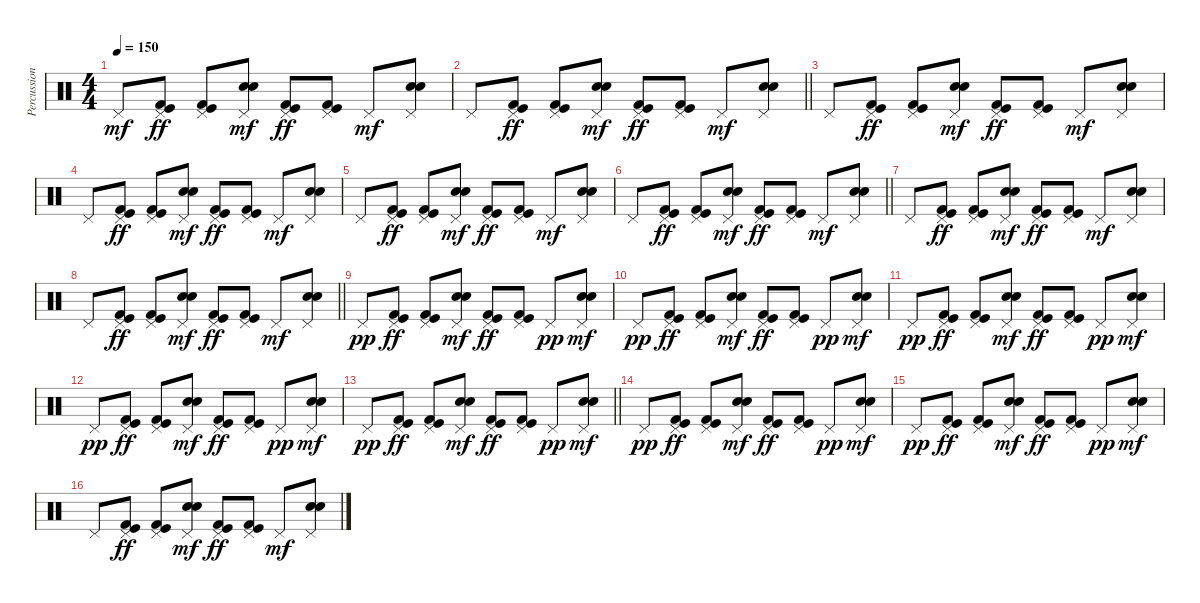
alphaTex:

\track ("Percussions" "Percussion") {instrument percussion}
\staff {score}
\articulation defaults
\ts (4 4)
\tempo 150
\clef neutral
\ks c "Pedal Hi-Hat (hit)".8{dy mf}
("Pedal Hi-Hat (hit)" "Kick (hit)" "Kick (hit) 2").8{dy ff} ("Pedal Hi-Hat (hit)" "Kick (hit)" "Kick (hit) 2").8 ("Pedal Hi-Hat (hit)" "Electric Snare (hit)" "Snare (hit) 2").8{dy mf} ("Pedal Hi-Hat (hit)" "Kick (hit)" "Kick (hit) 2").8{dy ff} ("Pedal Hi-Hat (hit)" "Kick (hit)" "Kick (hit) 2").8 "Pedal Hi-Hat (hit)".8{dy mf} ("Pedal Hi-Hat (hit)" "Electric Snare (hit)" "Snare (hit) 2").8 |
\barLineRight lightlight "Pedal Hi-Hat (hit)".8
("Pedal Hi-Hat (hit)" "Kick (hit)" "Kick (hit) 2").8{dy ff} ("Pedal Hi-Hat (hit)" "Kick (hit)" "Kick (hit) 2").8 ("Pedal Hi-Hat (hit)" "Electric Snare (hit)" "Snare (hit) 2").8{dy mf} ("Pedal Hi-Hat (hit)" "Kick (hit)" "Kick (hit) 2").8{dy ff} ("Pedal Hi-Hat (hit)" "Kick (hit)" "Kick (hit) 2").8 "Pedal Hi-Hat (hit)".8{dy mf} ("Pedal Hi-Hat (hit)" "Electric Snare (hit)" "Snare (hit) 2").8 |
"Pedal Hi-Hat (hit)".8 ("Pedal Hi-Hat (hit)" "Kick (hit)" "Kick (hit) 2").8{dy ff} ("Pedal Hi-Hat (hit)" "Kick (hit)" "Kick (hit) 2").8 ("Pedal Hi-Hat (hit)" "Electric Snare (hit)" "Snare (hit) 2").8{dy mf} ("Pedal Hi-Hat (hit)" "Kick (hit)" "Kick (hit) 2").8{dy ff} ("Pedal Hi-Hat (hit)" "Kick (hit)" "Kick (hit) 2").8 "Pedal Hi-Hat (hit)".8{dy mf} ("Pedal Hi-Hat (hit)" "Electric Snare (hit)" "Snare (hit) 2").8 |
"Pedal Hi-Hat (hit)".8 ("Pedal Hi-Hat (hit)" "Kick (hit)" "Kick (hit) 2").8{dy ff} ("Pedal Hi-Hat (hit)" "Kick (hit)" "Kick (hit) 2").8 ("Pedal Hi-Hat (hit)" "Electric Snare (hit)" "Snare (hit) 2").8{dy mf} ("Pedal Hi-Hat (hit)" "Kick (hit)" "Kick (hit) 2").8{dy ff} ("Pedal Hi-Hat (hit)" "Kick (hit)" "Kick (hit) 2").8 "Pedal Hi-Hat (hit)".8{dy mf} ("Pedal Hi-Hat (hit)" "Electric Snare (hit)" "Snare (hit) 2").8 |
"Pedal Hi-Hat (hit)".8 ("Pedal Hi-Hat (hit)" "Kick (hit)" "Kick (hit) 2").8{dy ff} ("Pedal Hi-Hat (hit)" "Kick (hit)" "Kick (hit) 2").8 ("Pedal Hi-Hat (hit)" "Electric Snare (hit)" "Snare (hit) 2").8{dy mf} ("Pedal Hi-Hat (hit)" "Kick (hit)" "Kick (hit) 2").8{dy ff} ("Pedal Hi-Hat (hit)" "Kick (hit)" "Kick (hit) 2").8 "Pedal Hi-Hat (hit)".8{dy mf} ("Pedal Hi-Hat (hit)" "Electric Snare (hit)" "Snare (hit) 2").8 |
\barLineRight lightlight "Pedal Hi-Hat (hit)".8
("Pedal Hi-Hat (hit)" "Kick (hit)" "Kick (hit) 2").8{dy ff} ("Pedal Hi-Hat (hit)" "Kick (hit)" "Kick (hit) 2").8 ("Pedal Hi-Hat (hit)" "Electric Snare (hit)" "Snare (hit) 2").8{dy mf} ("Pedal Hi-Hat (hit)" "Kick (hit)" "Kick (hit) 2").8{dy ff} ("Pedal Hi-Hat (hit)" "Kick (hit)" "Kick (hit) 2").8 "Pedal Hi-Hat (hit)".8{dy mf} ("Pedal Hi-Hat (hit)" "Electric Snare (hit)" "Snare (hit) 2").8 |
"Pedal Hi-Hat (hit)".8 ("Pedal Hi-Hat (hit)" "Kick (hit)" "Kick (hit) 2").8{dy ff} ("Pedal Hi-Hat (hit)" "Kick (hit)" "Kick (hit) 2").8 ("Pedal Hi-Hat (hit)" "Electric Snare (hit)" "Snare (hit) 2").8{dy mf} ("Pedal Hi-Hat (hit)" "Kick (hit)" "Kick (hit) 2").8{dy ff} ("Pedal Hi-Hat (hit)" "Kick (hit)" "Kick (hit) 2").8 "Pedal Hi-Hat (hit)".8{dy mf} ("Pedal Hi-Hat (hit)" "Electric Snare (hit)" "Snare (hit) 2").8 |
\barLineRight lightlight "Pedal Hi-Hat (hit)".8
("Pedal Hi-Hat (hit)" "Kick (hit)" "Kick (hit) 2").8{dy ff} ("Pedal Hi-Hat (hit)" "Kick (hit)" "Kick (hit) 2").8 ("Pedal Hi-Hat (hit)" "Electric Snare (hit)" "Snare (hit) 2").8{dy mf} ("Pedal Hi-Hat (hit)" "Kick (hit)" "Kick (hit) 2").8{dy ff} ("Pedal Hi-Hat (hit)" "Kick (hit)" "Kick (hit) 2").8 "Pedal Hi-Hat (hit)".8{dy mf} ("Pedal Hi-Hat (hit)" "Electric Snare (hit)" "Snare (hit) 2").8 |
"Pedal Hi-Hat (hit)".8{dy pp} ("Pedal Hi-Hat (hit)" "Kick (hit)" "Kick (hit) 2").8{dy ff} ("Pedal Hi-Hat (hit)" "Kick (hit)" "Kick (hit) 2").8 ("Pedal Hi-Hat (hit)" "Electric Snare (hit)" "Snare (hit) 2").8{dy mf} ("Pedal Hi-Hat (hit)" "Kick (hit)" "Kick (hit) 2").8{dy ff} ("Pedal Hi-Hat (hit)" "Kick (hit)" "Kick (hit) 2").8 "Pedal Hi-Hat (hit)".8{dy pp} ("Pedal Hi-Hat (hit)" "Electric Snare (hit)" "Snare (hit) 2").8{dy mf} |
"Pedal Hi-Hat (hit)".8{dy pp} ("Pedal Hi-Hat (hit)" "Kick (hit)" "Kick (hit) 2").8{dy ff} ("Pedal Hi-Hat (hit)" "Kick (hit)" "Kick (hit) 2").8 ("Pedal Hi-Hat (hit)" "Electric Snare (hit)" "Snare (hit) 2").8{dy mf} ("Pedal Hi-Hat (hit)" "Kick (hit)" "Kick (hit) 2").8{dy ff} ("Pedal Hi-Hat (hit)" "Kick (hit)" "Kick (hit) 2").8 "Pedal Hi-Hat (hit)".8{dy pp} ("Pedal Hi-Hat (hit)" "Electric Snare (hit)" "Snare (hit) 2").8{dy mf} |
"Pedal Hi-Hat (hit)".8{dy pp} ("Pedal Hi-Hat (hit)" "Kick (hit)" "Kick (hit) 2").8{dy ff} ("Pedal Hi-Hat (hit)" "Kick (hit)" "Kick (hit) 2").8 ("Pedal Hi-Hat (hit)" "Electric Snare (hit)" "Snare (hit) 2").8{dy mf} ("Pedal Hi-Hat (hit)" "Kick (hit)" "Kick (hit) 2").8{dy ff} ("Pedal Hi-Hat (hit)" "Kick (hit)" "Kick (hit) 2").8 "Pedal Hi-Hat (hit)".8{dy pp} ("Pedal Hi-Hat (hit)" "Electric Snare (hit)" "Snare (hit) 2").8{dy mf} |
"Pedal Hi-Hat (hit)".8{dy pp} ("Pedal Hi-Hat (hit)" "Kick (hit)" "Kick (hit) 2").8{dy ff} ("Pedal Hi-Hat (hit)" "Kick (hit)" "Kick (hit) 2").8 ("Pedal Hi-Hat (hit)" "Electric Snare (hit)" "Snare (hit) 2").8{dy mf} ("Pedal Hi-Hat (hit)" "Kick (hit)" "Kick (hit) 2").8{dy ff} ("Pedal Hi-Hat (hit)" "Kick (hit)" "Kick (hit) 2").8 "Pedal Hi-Hat (hit)".8{dy pp} ("Pedal Hi-Hat (hit)" "Electric Snare (hit)" "Snare (hit) 2").8{dy mf} |
\barLineRight lightlight "Pedal Hi-Hat (hit)".8{dy pp}
("Pedal Hi-Hat (hit)" "Kick (hit)" "Kick (hit) 2").8{dy ff} ("Pedal Hi-Hat (hit)" "Kick (hit)" "Kick (hit) 2").8 ("Pedal Hi-Hat (hit)" "Electric Snare (hit)" "Snare (hit) 2").8{dy mf} ("Pedal Hi-Hat (hit)" "Kick (hit)" "Kick (hit) 2").8{dy ff} ("Pedal Hi-Hat (hit)" "Kick (hit)" "Kick (hit) 2").8 "Pedal Hi-Hat (hit)".8{dy pp} ("Pedal Hi-Hat (hit)" "Electric Snare (hit)" "Snare (hit) 2").8{dy mf} |
"Pedal Hi-Hat (hit)".8{dy pp} ("Pedal Hi-Hat (hit)" "Kick (hit)" "Kick (hit) 2").8{dy ff} ("Pedal Hi-Hat (hit)" "Kick (hit)" "Kick (hit) 2").8 ("Pedal Hi-Hat (hit)" "Electric Snare (hit)" "Snare (hit) 2").8{dy mf} ("Pedal Hi-Hat (hit)" "Kick (hit)" "Kick (hit) 2").8{dy ff} ("Pedal Hi-Hat (hit)" "Kick (hit)" "Kick (hit) 2").8 "Pedal Hi-Hat (hit)".8{dy pp} ("Pedal Hi-Hat (hit)" "Electric Snare (hit)" "Snare (hit) 2").8{dy mf} |
"Pedal Hi-Hat (hit)".8{dy pp} ("Pedal Hi-Hat (hit)" "Kick (hit)" "Kick (hit) 2").8{dy ff} ("Pedal Hi-Hat (hit)" "Kick (hit)" "Kick (hit) 2").8 ("Pedal Hi-Hat (hit)" "Electric Snare (hit)" "Snare (hit) 2").8{dy mf} ("Pedal Hi-Hat (hit)" "Kick (hit)" "Kick (hit) 2").8{dy ff} ("Pedal Hi-Hat (hit)" "Kick (hit)" "Kick (hit) 2").8 "Pedal Hi-Hat (hit)".8{dy pp} ("Pedal Hi-Hat (hit)" "Electric Snare (hit)" "Snare (hit) 2").8{dy mf} |
"Pedal Hi-Hat (hit)".8 ("Pedal Hi-Hat (hit)" "Kick (hit)" "Kick (hit) 2").8{dy ff} ("Pedal Hi-Hat (hit)" "Kick (hit)" "Kick (hit) 2").8 ("Pedal Hi-Hat (hit)" "Electric Snare (hit)" "Snare (hit) 2").8{dy mf} ("Pedal Hi-Hat (hit)" "Kick (hit)" "Kick (hit) 2").8{dy ff} ("Pedal Hi-Hat (hit)" "Kick (hit)" "Kick (hit) 2").8 "Pedal Hi-Hat (hit)".8{dy mf} ("Pedal Hi-Hat (hit)" "Electric Snare (hit)" "Snare (hit) 2").8
